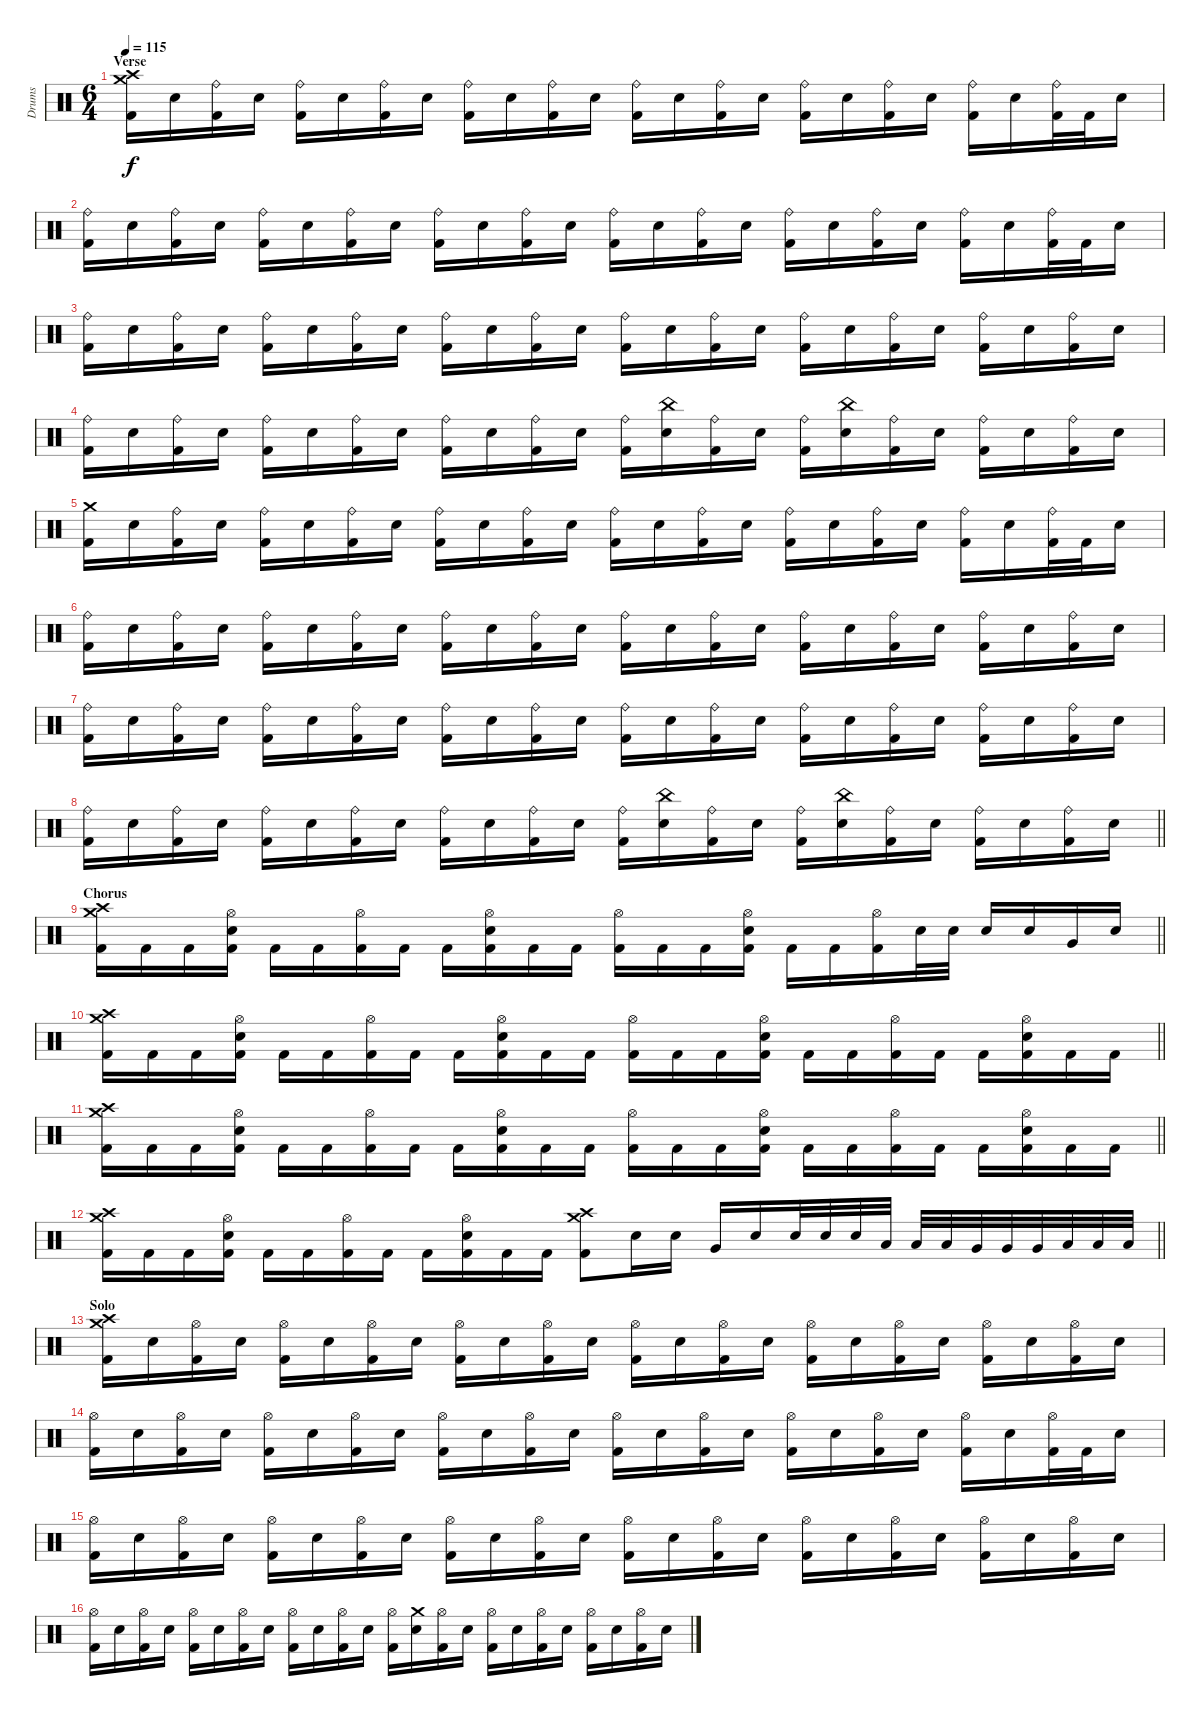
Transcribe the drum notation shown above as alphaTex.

\track ("Drums" "Drums") {instrument percussion}
\staff {score}
\articulation defaults
\ts (6 4)
\section ("" "Verse")
\tempo 115
\clef neutral
\ks c
("Crash medium (hit)" "Crash high (hit)" "Kick (hit) 2").16{dy f} "Snare (hit) 2".16 ("Ride (bell)" "Kick (hit) 2").16 "Snare (hit) 2".16 ("Ride (bell)" "Kick (hit) 2").16 "Snare (hit) 2".16 ("Ride (bell)" "Kick (hit) 2").16 "Snare (hit) 2".16 ("Ride (bell)" "Kick (hit) 2").16 "Snare (hit) 2".16 ("Ride (bell)" "Kick (hit) 2").16 "Snare (hit) 2".16 ("Ride (bell)" "Kick (hit) 2").16 "Snare (hit) 2".16 ("Ride (bell)" "Kick (hit) 2").16 "Snare (hit) 2".16 ("Ride (bell)" "Kick (hit) 2").16 "Snare (hit) 2".16 ("Ride (bell)" "Kick (hit) 2").16 "Snare (hit) 2".16 ("Ride (bell)" "Kick (hit) 2").16 "Snare (hit) 2".16 ("Ride (bell)" "Kick (hit) 2").32 "Kick (hit) 2".32 "Snare (hit) 2".16 |
("Ride (bell)" "Kick (hit) 2").16 "Snare (hit) 2".16 ("Ride (bell)" "Kick (hit) 2").16 "Snare (hit) 2".16 ("Ride (bell)" "Kick (hit) 2").16 "Snare (hit) 2".16 ("Ride (bell)" "Kick (hit) 2").16 "Snare (hit) 2".16 ("Ride (bell)" "Kick (hit) 2").16 "Snare (hit) 2".16 ("Ride (bell)" "Kick (hit) 2").16 "Snare (hit) 2".16 ("Ride (bell)" "Kick (hit) 2").16 "Snare (hit) 2".16 ("Ride (bell)" "Kick (hit) 2").16 "Snare (hit) 2".16 ("Ride (bell)" "Kick (hit) 2").16 "Snare (hit) 2".16 ("Ride (bell)" "Kick (hit) 2").16 "Snare (hit) 2".16 ("Ride (bell)" "Kick (hit) 2").16 "Snare (hit) 2".16 ("Ride (bell)" "Kick (hit) 2").32 "Kick (hit) 2".32 "Snare (hit) 2".16 |
("Ride (bell)" "Kick (hit) 2").16 "Snare (hit) 2".16 ("Ride (bell)" "Kick (hit) 2").16 "Snare (hit) 2".16 ("Ride (bell)" "Kick (hit) 2").16 "Snare (hit) 2".16 ("Ride (bell)" "Kick (hit) 2").16 "Snare (hit) 2".16 ("Ride (bell)" "Kick (hit) 2").16 "Snare (hit) 2".16 ("Ride (bell)" "Kick (hit) 2").16 "Snare (hit) 2".16 ("Ride (bell)" "Kick (hit) 2").16 "Snare (hit) 2".16 ("Ride (bell)" "Kick (hit) 2").16 "Snare (hit) 2".16 ("Ride (bell)" "Kick (hit) 2").16 "Snare (hit) 2".16 ("Ride (bell)" "Kick (hit) 2").16 "Snare (hit) 2".16 ("Ride (bell)" "Kick (hit) 2").16 "Snare (hit) 2".16 ("Ride (bell)" "Kick (hit) 2").16 "Snare (hit) 2".16 |
("Ride (bell)" "Kick (hit) 2").16 "Snare (hit) 2".16 ("Ride (bell)" "Kick (hit) 2").16 "Snare (hit) 2".16 ("Ride (bell)" "Kick (hit) 2").16 "Snare (hit) 2".16 ("Ride (bell)" "Kick (hit) 2").16 "Snare (hit) 2".16 ("Ride (bell)" "Kick (hit) 2").16 "Snare (hit) 2".16 ("Ride (bell)" "Kick (hit) 2").16 "Snare (hit) 2".16 ("Ride (bell)" "Kick (hit) 2").16 ("China (hit)" "Snare (hit) 2").16 ("Ride (bell)" "Kick (hit) 2").16 "Snare (hit) 2".16 ("Ride (bell)" "Kick (hit) 2").16 ("China (hit)" "Snare (hit) 2").16 ("Ride (bell)" "Kick (hit) 2").16 "Snare (hit) 2".16 ("Ride (bell)" "Kick (hit) 2").16 "Snare (hit) 2".16 ("Ride (bell)" "Kick (hit) 2").16 "Snare (hit) 2".16 |
("Crash medium (hit)" "Kick (hit) 2").16 "Snare (hit) 2".16 ("Ride (bell)" "Kick (hit) 2").16 "Snare (hit) 2".16 ("Ride (bell)" "Kick (hit) 2").16 "Snare (hit) 2".16 ("Ride (bell)" "Kick (hit) 2").16 "Snare (hit) 2".16 ("Ride (bell)" "Kick (hit) 2").16 "Snare (hit) 2".16 ("Ride (bell)" "Kick (hit) 2").16 "Snare (hit) 2".16 ("Ride (bell)" "Kick (hit) 2").16 "Snare (hit) 2".16 ("Ride (bell)" "Kick (hit) 2").16 "Snare (hit) 2".16 ("Ride (bell)" "Kick (hit) 2").16 "Snare (hit) 2".16 ("Ride (bell)" "Kick (hit) 2").16 "Snare (hit) 2".16 ("Ride (bell)" "Kick (hit) 2").16 "Snare (hit) 2".16 ("Ride (bell)" "Kick (hit) 2").32 "Kick (hit) 2".32 "Snare (hit) 2".16 |
("Ride (bell)" "Kick (hit) 2").16 "Snare (hit) 2".16 ("Ride (bell)" "Kick (hit) 2").16 "Snare (hit) 2".16 ("Ride (bell)" "Kick (hit) 2").16 "Snare (hit) 2".16 ("Ride (bell)" "Kick (hit) 2").16 "Snare (hit) 2".16 ("Ride (bell)" "Kick (hit) 2").16 "Snare (hit) 2".16 ("Ride (bell)" "Kick (hit) 2").16 "Snare (hit) 2".16 ("Ride (bell)" "Kick (hit) 2").16 "Snare (hit) 2".16 ("Ride (bell)" "Kick (hit) 2").16 "Snare (hit) 2".16 ("Ride (bell)" "Kick (hit) 2").16 "Snare (hit) 2".16 ("Ride (bell)" "Kick (hit) 2").16 "Snare (hit) 2".16 ("Ride (bell)" "Kick (hit) 2").16 "Snare (hit) 2".16 ("Ride (bell)" "Kick (hit) 2").16 "Snare (hit) 2".16 |
("Ride (bell)" "Kick (hit) 2").16 "Snare (hit) 2".16 ("Ride (bell)" "Kick (hit) 2").16 "Snare (hit) 2".16 ("Ride (bell)" "Kick (hit) 2").16 "Snare (hit) 2".16 ("Ride (bell)" "Kick (hit) 2").16 "Snare (hit) 2".16 ("Ride (bell)" "Kick (hit) 2").16 "Snare (hit) 2".16 ("Ride (bell)" "Kick (hit) 2").16 "Snare (hit) 2".16 ("Ride (bell)" "Kick (hit) 2").16 "Snare (hit) 2".16 ("Ride (bell)" "Kick (hit) 2").16 "Snare (hit) 2".16 ("Ride (bell)" "Kick (hit) 2").16 "Snare (hit) 2".16 ("Ride (bell)" "Kick (hit) 2").16 "Snare (hit) 2".16 ("Ride (bell)" "Kick (hit) 2").16 "Snare (hit) 2".16 ("Ride (bell)" "Kick (hit) 2").16 "Snare (hit) 2".16 |
\barLineRight lightlight
("Ride (bell)" "Kick (hit) 2").16 "Snare (hit) 2".16 ("Ride (bell)" "Kick (hit) 2").16 "Snare (hit) 2".16 ("Ride (bell)" "Kick (hit) 2").16 "Snare (hit) 2".16 ("Ride (bell)" "Kick (hit) 2").16 "Snare (hit) 2".16 ("Ride (bell)" "Kick (hit) 2").16 "Snare (hit) 2".16 ("Ride (bell)" "Kick (hit) 2").16 "Snare (hit) 2".16 ("Ride (bell)" "Kick (hit) 2").16 ("China (hit)" "Snare (hit) 2").16 ("Ride (bell)" "Kick (hit) 2").16 "Snare (hit) 2".16 ("Ride (bell)" "Kick (hit) 2").16 ("China (hit)" "Snare (hit) 2").16 ("Ride (bell)" "Kick (hit) 2").16 "Snare (hit) 2".16 ("Ride (bell)" "Kick (hit) 2").16 "Snare (hit) 2".16 ("Ride (bell)" "Kick (hit) 2").16 "Snare (hit) 2".16 |
\section ("" "Chorus")
\barLineRight lightlight
("Crash medium (hit)" "Crash high (hit)" "Kick (hit) 2").16 "Kick (hit) 2".16 "Kick (hit) 2".16 ("Hi-Hat (open)" "Snare (hit) 2" "Kick (hit) 2").16 "Kick (hit) 2".16 "Kick (hit) 2".16 ("Hi-Hat (open)" "Kick (hit) 2").16 "Kick (hit) 2".16 "Kick (hit) 2".16 ("Hi-Hat (open)" "Snare (hit) 2" "Kick (hit) 2").16 "Kick (hit) 2".16 "Kick (hit) 2".16 ("Hi-Hat (open)" "Kick (hit) 2").16 "Kick (hit) 2".16 "Kick (hit) 2".16 ("Hi-Hat (open)" "Snare (hit) 2" "Kick (hit) 2").16 "Kick (hit) 2".16 "Kick (hit) 2".16 ("Hi-Hat (open)" "Kick (hit) 2").16 "Snare (hit) 2".32 "Snare (hit) 2".32 "Snare (hit) 2".16 "Snare (hit) 2".16 "Very Low Tom (hit)".16 "Snare (hit) 2".16 |
\barLineRight lightlight
("Crash medium (hit)" "Crash high (hit)" "Kick (hit) 2").16 "Kick (hit) 2".16 "Kick (hit) 2".16 ("Hi-Hat (open)" "Snare (hit) 2" "Kick (hit) 2").16 "Kick (hit) 2".16 "Kick (hit) 2".16 ("Hi-Hat (open)" "Kick (hit) 2").16 "Kick (hit) 2".16 "Kick (hit) 2".16 ("Hi-Hat (open)" "Snare (hit) 2" "Kick (hit) 2").16 "Kick (hit) 2".16 "Kick (hit) 2".16 ("Hi-Hat (open)" "Kick (hit) 2").16 "Kick (hit) 2".16 "Kick (hit) 2".16 ("Hi-Hat (open)" "Snare (hit) 2" "Kick (hit) 2").16 "Kick (hit) 2".16 "Kick (hit) 2".16 ("Hi-Hat (open)" "Kick (hit) 2").16 "Kick (hit) 2".16 "Kick (hit) 2".16 ("Hi-Hat (open)" "Snare (hit) 2" "Kick (hit) 2").16 "Kick (hit) 2".16 "Kick (hit) 2".16 |
\barLineRight lightlight
("Crash medium (hit)" "Crash high (hit)" "Kick (hit) 2").16 "Kick (hit) 2".16 "Kick (hit) 2".16 ("Hi-Hat (open)" "Snare (hit) 2" "Kick (hit) 2").16 "Kick (hit) 2".16 "Kick (hit) 2".16 ("Hi-Hat (open)" "Kick (hit) 2").16 "Kick (hit) 2".16 "Kick (hit) 2".16 ("Hi-Hat (open)" "Snare (hit) 2" "Kick (hit) 2").16 "Kick (hit) 2".16 "Kick (hit) 2".16 ("Hi-Hat (open)" "Kick (hit) 2").16 "Kick (hit) 2".16 "Kick (hit) 2".16 ("Hi-Hat (open)" "Snare (hit) 2" "Kick (hit) 2").16 "Kick (hit) 2".16 "Kick (hit) 2".16 ("Hi-Hat (open)" "Kick (hit) 2").16 "Kick (hit) 2".16 "Kick (hit) 2".16 ("Hi-Hat (open)" "Snare (hit) 2" "Kick (hit) 2").16 "Kick (hit) 2".16 "Kick (hit) 2".16 |
\barLineRight lightlight
("Crash medium (hit)" "Crash high (hit)" "Kick (hit) 2").16 "Kick (hit) 2".16 "Kick (hit) 2".16 ("Hi-Hat (open)" "Snare (hit) 2" "Kick (hit) 2").16 "Kick (hit) 2".16 "Kick (hit) 2".16 ("Hi-Hat (open)" "Kick (hit) 2").16 "Kick (hit) 2".16 "Kick (hit) 2".16 ("Hi-Hat (open)" "Snare (hit) 2" "Kick (hit) 2").16 "Kick (hit) 2".16 "Kick (hit) 2".16 ("Crash medium (hit)" "Crash high (hit)" "Kick (hit) 2").8 "Snare (hit) 2".16 "Snare (hit) 2".16 "Very Low Tom (hit)".16 "Snare (hit) 2".16 "Snare (hit) 2".32 "Snare (hit) 2".32 "Snare (hit) 2".32 "Low Tom (hit)".32 "Low Tom (hit)".32 "Low Tom (hit)".32 "Very Low Tom (hit)".32 "Very Low Tom (hit)".32 "Very Low Tom (hit)".32 "Low Floor Tom (hit)".32 "Low Floor Tom (hit)".32 "Low Floor Tom (hit)".32 |
\section ("" "Solo")
("Crash medium (hit)" "Crash high (hit)" "Kick (hit) 2").16 "Snare (hit) 2".16 ("Hi-Hat (open)" "Kick (hit) 2").16 "Snare (hit) 2".16 ("Hi-Hat (open)" "Kick (hit) 2").16 "Snare (hit) 2".16 ("Hi-Hat (open)" "Kick (hit) 2").16 "Snare (hit) 2".16 ("Hi-Hat (open)" "Kick (hit) 2").16 "Snare (hit) 2".16 ("Hi-Hat (open)" "Kick (hit) 2").16 "Snare (hit) 2".16 ("Hi-Hat (open)" "Kick (hit) 2").16 "Snare (hit) 2".16 ("Hi-Hat (open)" "Kick (hit) 2").16 "Snare (hit) 2".16 ("Hi-Hat (open)" "Kick (hit) 2").16 "Snare (hit) 2".16 ("Hi-Hat (open)" "Kick (hit) 2").16 "Snare (hit) 2".16 ("Hi-Hat (open)" "Kick (hit) 2").16 "Snare (hit) 2".16 ("Hi-Hat (open)" "Kick (hit) 2").16 "Snare (hit) 2".16 |
("Hi-Hat (open)" "Kick (hit) 2").16 "Snare (hit) 2".16 ("Hi-Hat (open)" "Kick (hit) 2").16 "Snare (hit) 2".16 ("Hi-Hat (open)" "Kick (hit) 2").16 "Snare (hit) 2".16 ("Hi-Hat (open)" "Kick (hit) 2").16 "Snare (hit) 2".16 ("Hi-Hat (open)" "Kick (hit) 2").16 "Snare (hit) 2".16 ("Hi-Hat (open)" "Kick (hit) 2").16 "Snare (hit) 2".16 ("Hi-Hat (open)" "Kick (hit) 2").16 "Snare (hit) 2".16 ("Hi-Hat (open)" "Kick (hit) 2").16 "Snare (hit) 2".16 ("Hi-Hat (open)" "Kick (hit) 2").16 "Snare (hit) 2".16 ("Hi-Hat (open)" "Kick (hit) 2").16 "Snare (hit) 2".16 ("Hi-Hat (open)" "Kick (hit) 2").16 "Snare (hit) 2".16 ("Hi-Hat (open)" "Kick (hit) 2").32 "Kick (hit) 2".32 "Snare (hit) 2".16 |
("Hi-Hat (open)" "Kick (hit) 2").16 "Snare (hit) 2".16 ("Hi-Hat (open)" "Kick (hit) 2").16 "Snare (hit) 2".16 ("Hi-Hat (open)" "Kick (hit) 2").16 "Snare (hit) 2".16 ("Hi-Hat (open)" "Kick (hit) 2").16 "Snare (hit) 2".16 ("Hi-Hat (open)" "Kick (hit) 2").16 "Snare (hit) 2".16 ("Hi-Hat (open)" "Kick (hit) 2").16 "Snare (hit) 2".16 ("Hi-Hat (open)" "Kick (hit) 2").16 "Snare (hit) 2".16 ("Hi-Hat (open)" "Kick (hit) 2").16 "Snare (hit) 2".16 ("Hi-Hat (open)" "Kick (hit) 2").16 "Snare (hit) 2".16 ("Hi-Hat (open)" "Kick (hit) 2").16 "Snare (hit) 2".16 ("Hi-Hat (open)" "Kick (hit) 2").16 "Snare (hit) 2".16 ("Hi-Hat (open)" "Kick (hit) 2").16 "Snare (hit) 2".16 |
("Hi-Hat (open)" "Kick (hit) 2").16 "Snare (hit) 2".16 ("Hi-Hat (open)" "Kick (hit) 2").16 "Snare (hit) 2".16 ("Hi-Hat (open)" "Kick (hit) 2").16 "Snare (hit) 2".16 ("Hi-Hat (open)" "Kick (hit) 2").16 "Snare (hit) 2".16 ("Hi-Hat (open)" "Kick (hit) 2").16 "Snare (hit) 2".16 ("Hi-Hat (open)" "Kick (hit) 2").16 "Snare (hit) 2".16 ("Hi-Hat (open)" "Kick (hit) 2").16 ("Crash medium (hit)" "Snare (hit) 2").16 ("Hi-Hat (open)" "Kick (hit) 2").16 "Snare (hit) 2".16 ("Hi-Hat (open)" "Kick (hit) 2").16 "Snare (hit) 2".16 ("Hi-Hat (open)" "Kick (hit) 2").16 "Snare (hit) 2".16 ("Hi-Hat (open)" "Kick (hit) 2").16 "Snare (hit) 2".16 ("Hi-Hat (open)" "Kick (hit) 2").16 "Snare (hit) 2".16
